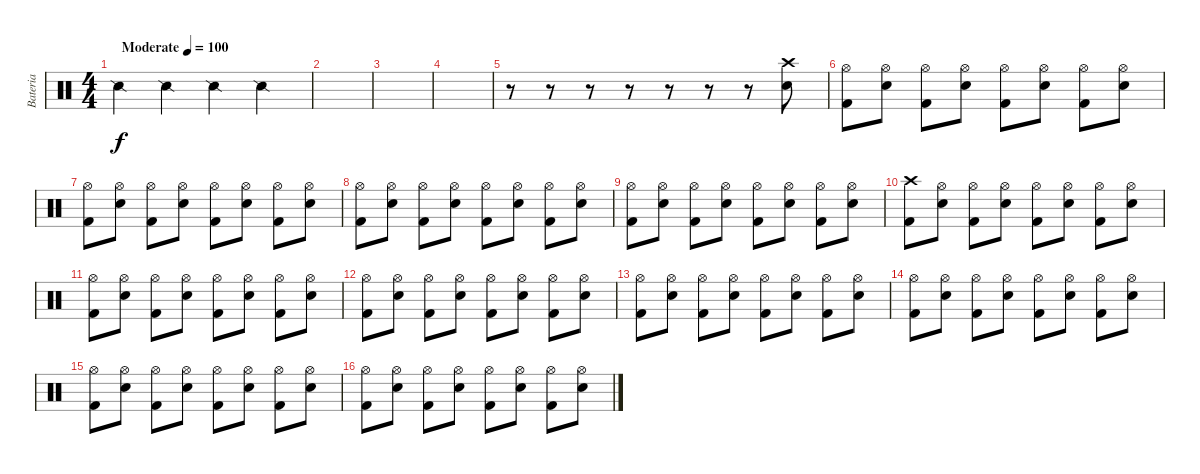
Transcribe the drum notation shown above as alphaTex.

\track ("Bateria" "Bateria") {instrument percussion}
\staff {score}
\articulation defaults
\ts (4 4)
\tempo (100 "Moderate")
\clef neutral
\ks c "Snare (side stick) 2".4{dy f} "Snare (side stick) 2".4 "Snare (side stick) 2".4 "Snare (side stick) 2".4
|
|
|
|
r.8 r.8 r.8 r.8 r.8 r.8 r.8 ("Crash high (hit)" "Electric Snare (hit)").8 |
("Hi-Hat (open)" "Kick (hit) 2").8 ("Hi-Hat (open)" "Electric Snare (hit)").8 ("Hi-Hat (open)" "Kick (hit) 2").8 ("Hi-Hat (open)" "Electric Snare (hit)").8 ("Hi-Hat (open)" "Kick (hit) 2").8 ("Hi-Hat (open)" "Electric Snare (hit)").8 ("Hi-Hat (open)" "Kick (hit) 2").8 ("Hi-Hat (open)" "Electric Snare (hit)").8 |
("Hi-Hat (open)" "Kick (hit) 2").8 ("Hi-Hat (open)" "Electric Snare (hit)").8 ("Hi-Hat (open)" "Kick (hit) 2").8 ("Hi-Hat (open)" "Electric Snare (hit)").8 ("Hi-Hat (open)" "Kick (hit) 2").8 ("Hi-Hat (open)" "Electric Snare (hit)").8 ("Hi-Hat (open)" "Kick (hit) 2").8 ("Hi-Hat (open)" "Electric Snare (hit)").8 |
("Hi-Hat (open)" "Kick (hit) 2").8 ("Hi-Hat (open)" "Electric Snare (hit)").8 ("Hi-Hat (open)" "Kick (hit) 2").8 ("Hi-Hat (open)" "Electric Snare (hit)").8 ("Hi-Hat (open)" "Kick (hit) 2").8 ("Hi-Hat (open)" "Electric Snare (hit)").8 ("Hi-Hat (open)" "Kick (hit) 2").8 ("Hi-Hat (open)" "Electric Snare (hit)").8 |
("Hi-Hat (open)" "Kick (hit) 2").8 ("Hi-Hat (open)" "Electric Snare (hit)").8 ("Hi-Hat (open)" "Kick (hit) 2").8 ("Hi-Hat (open)" "Electric Snare (hit)").8 ("Hi-Hat (open)" "Kick (hit) 2").8 ("Hi-Hat (open)" "Electric Snare (hit)").8 ("Hi-Hat (open)" "Kick (hit) 2").8 ("Hi-Hat (open)" "Electric Snare (hit)").8 |
("Crash high (hit)" "Kick (hit) 2").8 ("Hi-Hat (open)" "Electric Snare (hit)").8 ("Hi-Hat (open)" "Kick (hit) 2").8 ("Hi-Hat (open)" "Electric Snare (hit)").8 ("Hi-Hat (open)" "Kick (hit) 2").8 ("Hi-Hat (open)" "Electric Snare (hit)").8 ("Hi-Hat (open)" "Kick (hit) 2").8 ("Hi-Hat (open)" "Electric Snare (hit)").8 |
("Hi-Hat (open)" "Kick (hit) 2").8 ("Hi-Hat (open)" "Electric Snare (hit)").8 ("Hi-Hat (open)" "Kick (hit) 2").8 ("Hi-Hat (open)" "Electric Snare (hit)").8 ("Hi-Hat (open)" "Kick (hit) 2").8 ("Hi-Hat (open)" "Electric Snare (hit)").8 ("Hi-Hat (open)" "Kick (hit) 2").8 ("Hi-Hat (open)" "Electric Snare (hit)").8 |
("Hi-Hat (open)" "Kick (hit) 2").8 ("Hi-Hat (open)" "Electric Snare (hit)").8 ("Hi-Hat (open)" "Kick (hit) 2").8 ("Hi-Hat (open)" "Electric Snare (hit)").8 ("Hi-Hat (open)" "Kick (hit) 2").8 ("Hi-Hat (open)" "Electric Snare (hit)").8 ("Hi-Hat (open)" "Kick (hit) 2").8 ("Hi-Hat (open)" "Electric Snare (hit)").8 |
("Hi-Hat (open)" "Kick (hit) 2").8 ("Hi-Hat (open)" "Electric Snare (hit)").8 ("Hi-Hat (open)" "Kick (hit) 2").8 ("Hi-Hat (open)" "Electric Snare (hit)").8 ("Hi-Hat (open)" "Kick (hit) 2").8 ("Hi-Hat (open)" "Electric Snare (hit)").8 ("Hi-Hat (open)" "Kick (hit) 2").8 ("Hi-Hat (open)" "Electric Snare (hit)").8 |
("Hi-Hat (open)" "Kick (hit) 2").8 ("Hi-Hat (open)" "Electric Snare (hit)").8 ("Hi-Hat (open)" "Kick (hit) 2").8 ("Hi-Hat (open)" "Electric Snare (hit)").8 ("Hi-Hat (open)" "Kick (hit) 2").8 ("Hi-Hat (open)" "Electric Snare (hit)").8 ("Hi-Hat (open)" "Kick (hit) 2").8 ("Hi-Hat (open)" "Electric Snare (hit)").8 |
("Hi-Hat (open)" "Kick (hit) 2").8 ("Hi-Hat (open)" "Electric Snare (hit)").8 ("Hi-Hat (open)" "Kick (hit) 2").8 ("Hi-Hat (open)" "Electric Snare (hit)").8 ("Hi-Hat (open)" "Kick (hit) 2").8 ("Hi-Hat (open)" "Electric Snare (hit)").8 ("Hi-Hat (open)" "Kick (hit) 2").8 ("Hi-Hat (open)" "Electric Snare (hit)").8 |
("Hi-Hat (open)" "Kick (hit) 2").8 ("Hi-Hat (open)" "Electric Snare (hit)").8 ("Hi-Hat (open)" "Kick (hit) 2").8 ("Hi-Hat (open)" "Electric Snare (hit)").8 ("Hi-Hat (open)" "Kick (hit) 2").8 ("Hi-Hat (open)" "Electric Snare (hit)").8 ("Hi-Hat (open)" "Kick (hit) 2").8 ("Hi-Hat (open)" "Electric Snare (hit)").8
